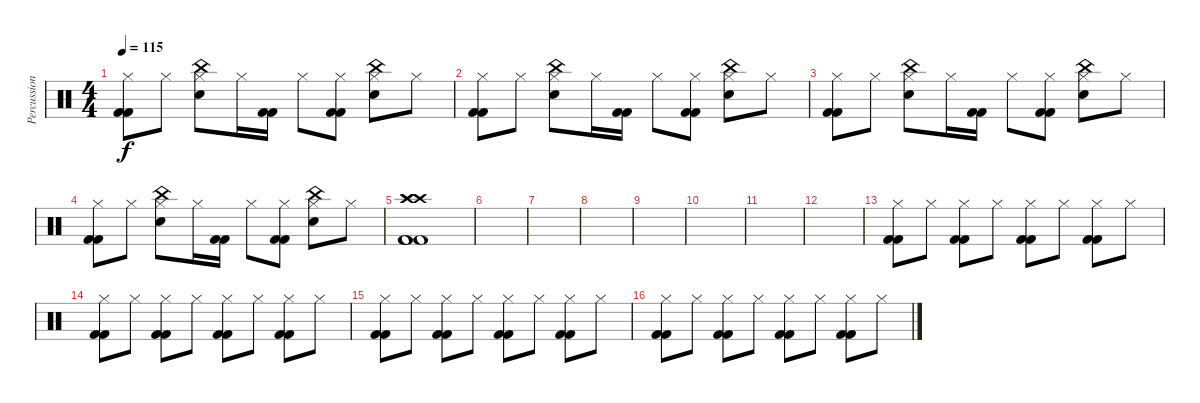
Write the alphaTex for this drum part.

\track ("Percussion" "Percussion") {instrument percussion}
\staff {score}
\articulation defaults
\ts (4 4)
\tempo 115
\clef neutral
\ks c
("Hi-Hat (closed)" "Kick (hit) 2" "Kick (hit) 2").8{dy f} "Hi-Hat (closed)".8 ("Hi-Hat (closed)" "Electric Snare (hit)" "China (hit)").8 "Hi-Hat (closed)".16 ("Kick (hit) 2" "Kick (hit) 2").16 "Hi-Hat (closed)".8 ("Hi-Hat (closed)" "Kick (hit) 2" "Kick (hit) 2").8 ("Hi-Hat (closed)" "Electric Snare (hit)" "China (hit)").8 "Hi-Hat (closed)".8 |
("Hi-Hat (closed)" "Kick (hit) 2" "Kick (hit) 2").8 "Hi-Hat (closed)".8 ("Hi-Hat (closed)" "Electric Snare (hit)" "China (hit)").8 "Hi-Hat (closed)".16 ("Kick (hit) 2" "Kick (hit) 2").16 "Hi-Hat (closed)".8 ("Hi-Hat (closed)" "Kick (hit) 2" "Kick (hit) 2").8 ("Hi-Hat (closed)" "Electric Snare (hit)" "China (hit)").8 "Hi-Hat (closed)".8 |
("Hi-Hat (closed)" "Kick (hit) 2" "Kick (hit) 2").8 "Hi-Hat (closed)".8 ("Hi-Hat (closed)" "Electric Snare (hit)" "China (hit)").8 "Hi-Hat (closed)".16 ("Kick (hit) 2" "Kick (hit) 2").16 "Hi-Hat (closed)".8 ("Hi-Hat (closed)" "Kick (hit) 2" "Kick (hit) 2").8 ("Hi-Hat (closed)" "Electric Snare (hit)" "China (hit)").8 "Hi-Hat (closed)".8 |
("Hi-Hat (closed)" "Kick (hit) 2" "Kick (hit) 2").8 "Hi-Hat (closed)".8 ("Hi-Hat (closed)" "Electric Snare (hit)" "China (hit)").8 "Hi-Hat (closed)".16 ("Kick (hit) 2" "Kick (hit) 2").16 "Hi-Hat (closed)".8 ("Hi-Hat (closed)" "Kick (hit) 2" "Kick (hit) 2").8 ("Hi-Hat (closed)" "Electric Snare (hit)" "China (hit)").8 "Hi-Hat (closed)".8 |
("Kick (hit) 2" "Kick (hit) 2" "Kick (hit) 2" "Crash high (hit)" "Crash high (hit)" "Crash high (hit)").1 |
|
|
|
|
|
|
|
("Hi-Hat (closed)" "Kick (hit) 2" "Kick (hit) 2").8 "Hi-Hat (closed)".8 ("Hi-Hat (closed)" "Kick (hit) 2" "Kick (hit) 2").8 "Hi-Hat (closed)".8 ("Hi-Hat (closed)" "Kick (hit) 2" "Kick (hit) 2").8 "Hi-Hat (closed)".8 ("Hi-Hat (closed)" "Kick (hit) 2" "Kick (hit) 2").8 "Hi-Hat (closed)".8 |
("Hi-Hat (closed)" "Kick (hit) 2" "Kick (hit) 2").8 "Hi-Hat (closed)".8 ("Hi-Hat (closed)" "Kick (hit) 2" "Kick (hit) 2").8 "Hi-Hat (closed)".8 ("Hi-Hat (closed)" "Kick (hit) 2" "Kick (hit) 2").8 "Hi-Hat (closed)".8 ("Hi-Hat (closed)" "Kick (hit) 2" "Kick (hit) 2").8 "Hi-Hat (closed)".8 |
("Hi-Hat (closed)" "Kick (hit) 2" "Kick (hit) 2").8 "Hi-Hat (closed)".8 ("Hi-Hat (closed)" "Kick (hit) 2" "Kick (hit) 2").8 "Hi-Hat (closed)".8 ("Hi-Hat (closed)" "Kick (hit) 2" "Kick (hit) 2").8 "Hi-Hat (closed)".8 ("Hi-Hat (closed)" "Kick (hit) 2" "Kick (hit) 2").8 "Hi-Hat (closed)".8 |
("Hi-Hat (closed)" "Kick (hit) 2" "Kick (hit) 2").8 "Hi-Hat (closed)".8 ("Hi-Hat (closed)" "Kick (hit) 2" "Kick (hit) 2").8 "Hi-Hat (closed)".8 ("Hi-Hat (closed)" "Kick (hit) 2" "Kick (hit) 2").8 "Hi-Hat (closed)".8 ("Hi-Hat (closed)" "Kick (hit) 2" "Kick (hit) 2").8 "Hi-Hat (closed)".8
